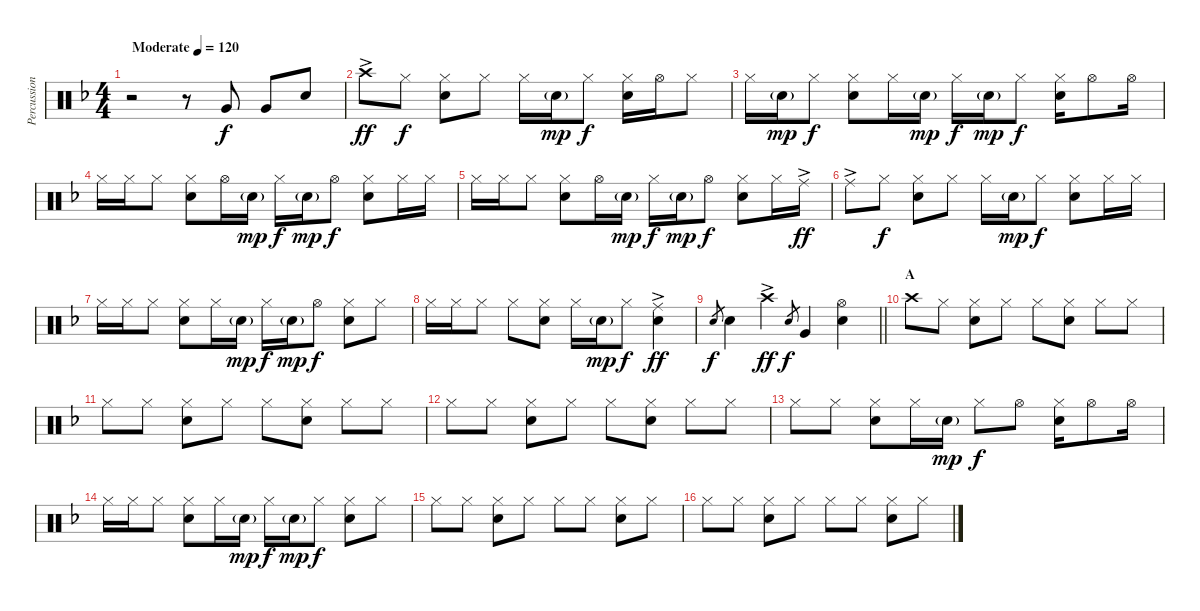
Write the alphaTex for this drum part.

\track ("Percussion hand" "Percussion") {instrument percussion}
\staff {score}
\articulation defaults
\ts (4 4)
\tempo (120 "Moderate")
\clef neutral
\ks f
r.2{dy f} r.8 "Very Low Tom (hit)".8 "Very Low Tom (hit)".8 "Snare (hit) 2".8 |
"Crash high (hit)"{ac}.8{dy ff} "Hi-Hat (closed)".8{dy f} ("Hi-Hat (closed)" "Snare (hit) 2").8 "Hi-Hat (closed)".8 "Hi-Hat (closed)".16 "Snare (hit) 2"{g}.16{dy mp} "Hi-Hat (closed)".8{dy f} ("Hi-Hat (closed)" "Snare (hit) 2").16 "Hi-Hat (open)".16 "Hi-Hat (closed)".8 |
"Hi-Hat (closed)".16 "Snare (hit) 2"{g}.16{dy mp} "Hi-Hat (closed)".8{dy f} ("Hi-Hat (closed)" "Snare (hit) 2").8 "Hi-Hat (closed)".16 "Snare (hit) 2"{g}.16{dy mp} "Hi-Hat (closed)".16{dy f} "Snare (hit) 2"{g}.16{dy mp} "Hi-Hat (closed)".8{dy f} ("Hi-Hat (closed)" "Snare (hit) 2").16 "Hi-Hat (open)".8 "Hi-Hat (open)".16 |
"Hi-Hat (closed)".16 "Hi-Hat (closed)".16 "Hi-Hat (closed)".8 ("Hi-Hat (closed)" "Snare (hit) 2").8 "Hi-Hat (open)".16 "Snare (hit) 2"{g}.16{dy mp} "Hi-Hat (closed)".16{dy f} "Snare (hit) 2"{g}.16{dy mp} "Hi-Hat (open)".8{dy f} ("Hi-Hat (closed)" "Snare (hit) 2").8 "Hi-Hat (closed)".16 "Hi-Hat (closed)".16 |
"Hi-Hat (closed)".16 "Hi-Hat (closed)".16 "Hi-Hat (closed)".8 ("Hi-Hat (closed)" "Snare (hit) 2").8 "Hi-Hat (open)".16 "Snare (hit) 2"{g}.16{dy mp} "Hi-Hat (closed)".16{dy f} "Snare (hit) 2"{g}.16{dy mp} "Hi-Hat (open)".8{dy f} ("Hi-Hat (closed)" "Snare (hit) 2").8 "Hi-Hat (closed)".16 "Ride (middle)"{ac}.16{dy ff} |
"Ride (middle)"{ac}.8 "Hi-Hat (closed)".8{dy f} ("Hi-Hat (closed)" "Snare (hit) 2").8 "Hi-Hat (closed)".8 "Hi-Hat (closed)".16 "Snare (hit) 2"{g}.16{dy mp} "Hi-Hat (closed)".8{dy f} ("Hi-Hat (closed)" "Snare (hit) 2").8 "Hi-Hat (closed)".16 "Hi-Hat (closed)".16 |
"Hi-Hat (closed)".16 "Hi-Hat (closed)".16 "Hi-Hat (closed)".8 ("Hi-Hat (closed)" "Snare (hit) 2").8 "Hi-Hat (closed)".16 "Snare (hit) 2"{g}.16{dy mp} "Hi-Hat (closed)".16{dy f} "Snare (hit) 2"{g}.16{dy mp} "Hi-Hat (open)".8{dy f} ("Hi-Hat (closed)" "Snare (hit) 2").8 "Hi-Hat (closed)".8 |
"Hi-Hat (closed)".16 "Hi-Hat (closed)".16 "Hi-Hat (closed)".8 "Hi-Hat (closed)".8 ("Hi-Hat (closed)" "Snare (hit) 2").8 "Hi-Hat (closed)".16 "Snare (hit) 2"{g}.16{dy mp} "Hi-Hat (closed)".8{dy f} ("Ride (middle)"{ac} "Snare (hit) 2").4{dy ff} |
\barLineRight lightlight "Snare (hit) 2".8{gr dy f} "Snare (hit) 2".4 "Crash high (hit)"{ac}.4{dy ff} "Snare (hit) 2".8{gr dy f} "Very Low Tom (hit)".4
("Hi-Hat (open)" "Snare (hit) 2").4 |
\section ("" "A")
"Crash high (hit)".8 "Hi-Hat (closed)".8 ("Hi-Hat (closed)" "Snare (hit) 2").8 "Hi-Hat (closed)".8 "Hi-Hat (closed)".8 ("Hi-Hat (closed)" "Snare (hit) 2").8 "Hi-Hat (closed)".8 "Hi-Hat (closed)".8 |
"Hi-Hat (closed)".8 "Hi-Hat (closed)".8 ("Hi-Hat (closed)" "Snare (hit) 2").8 "Hi-Hat (closed)".8 "Hi-Hat (closed)".8 ("Hi-Hat (closed)" "Snare (hit) 2").8 "Hi-Hat (closed)".8 "Hi-Hat (closed)".8 |
"Hi-Hat (closed)".8 "Hi-Hat (closed)".8 ("Hi-Hat (closed)" "Snare (hit) 2").8 "Hi-Hat (closed)".8 "Hi-Hat (closed)".8 ("Hi-Hat (closed)" "Snare (hit) 2").8 "Hi-Hat (closed)".8 "Hi-Hat (closed)".8 |
"Hi-Hat (closed)".8 "Hi-Hat (closed)".8 ("Hi-Hat (closed)" "Snare (hit) 2").8 "Hi-Hat (closed)".16 "Snare (hit) 2"{g}.16{dy mp} "Hi-Hat (closed)".8{dy f} "Hi-Hat (open)".8 ("Hi-Hat (closed)" "Snare (hit) 2").16 "Hi-Hat (open)".8 "Hi-Hat (open)".16 |
"Hi-Hat (closed)".16 "Hi-Hat (closed)".16 "Hi-Hat (closed)".8 ("Hi-Hat (closed)" "Snare (hit) 2").8 "Hi-Hat (closed)".16 "Snare (hit) 2"{g}.16{dy mp} "Hi-Hat (closed)".16{dy f} "Snare (hit) 2"{g}.16{dy mp} "Hi-Hat (closed)".8{dy f} ("Hi-Hat (closed)" "Snare (hit) 2").8 "Hi-Hat (closed)".8 |
"Hi-Hat (closed)".8 "Hi-Hat (closed)".8 ("Hi-Hat (closed)" "Snare (hit) 2").8 "Hi-Hat (closed)".8 "Hi-Hat (closed)".8 "Hi-Hat (closed)".8 ("Hi-Hat (closed)" "Snare (hit) 2").8 "Hi-Hat (closed)".8 |
"Hi-Hat (closed)".8 "Hi-Hat (closed)".8 ("Hi-Hat (closed)" "Snare (hit) 2").8 "Hi-Hat (closed)".8 "Hi-Hat (closed)".8 "Hi-Hat (closed)".8 ("Hi-Hat (closed)" "Snare (hit) 2").8 "Hi-Hat (closed)".8
